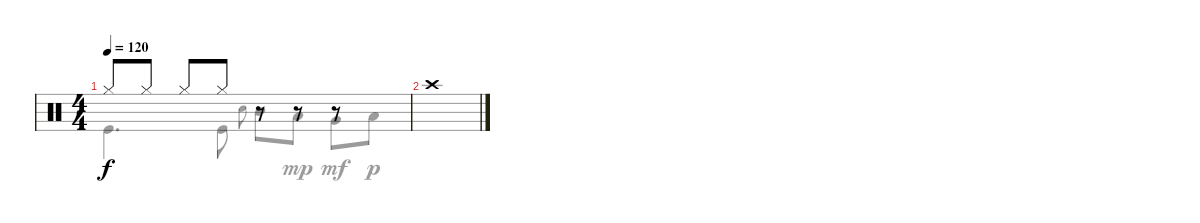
\track "" {instrument percussion}
\staff {score}
\articulation defaults
\voice
\ts (4 4)
\tempo 120
\clef neutral
\ks c "Hi-Hat (closed)".8{dy f} "Hi-Hat (closed)".8 "Hi-Hat (closed)".8 "Hi-Hat (closed)".8
r.8 r.8 r.8 |
"Crash high (hit)".1 |
|
\voice
\clef neutral
\ottava regular
\simile none
\ks c "Kick (hit)".4{d dy f} "Kick (hit)".8 "Snare (hit) 2".8{gr onbeat} "Mid Tom (hit)".8 "Low Tom (hit)".8{dy mp} "Very Low Tom (hit)".8{dy mf} "Low Floor Tom (hit)".8{dy p}
|
|
|
